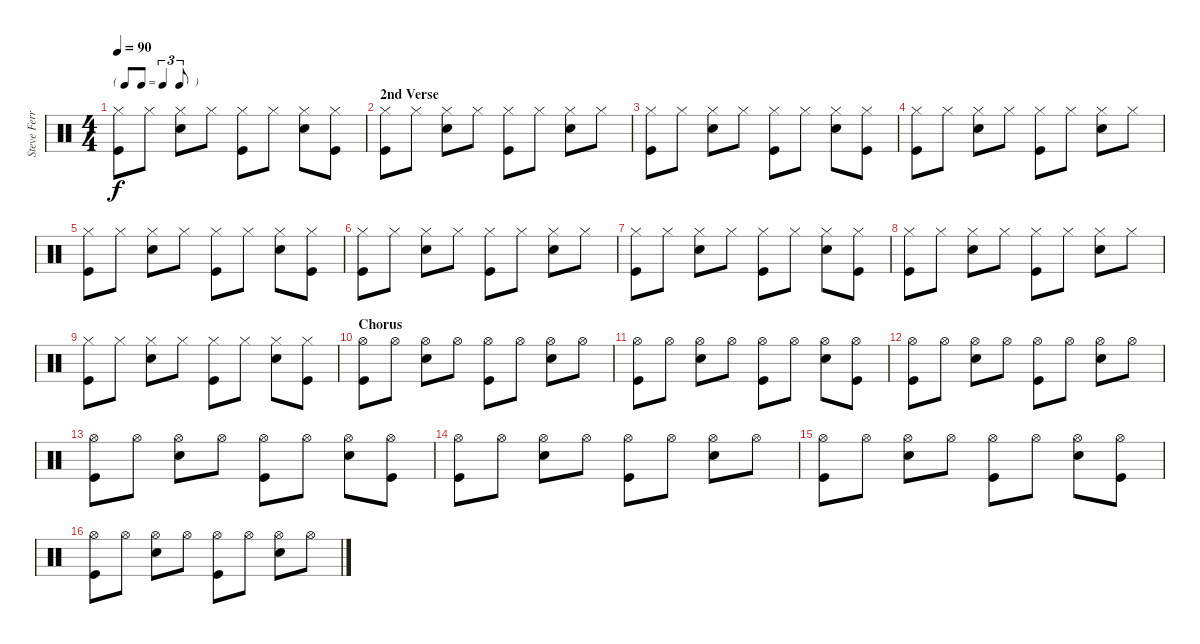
\track ("Steve Ferrone" "Steve Ferr") {instrument percussion}
\staff {score}
\articulation defaults
\ts (4 4)
\tf triplet8th
\tempo 90
\clef neutral
\ks c
("Hi-Hat (closed)" "Kick (hit)").8{dy f} "Hi-Hat (closed)".8 ("Hi-Hat (closed)" "Snare (hit) 2").8 "Hi-Hat (closed)".8 ("Hi-Hat (closed)" "Kick (hit)").8 "Hi-Hat (closed)".8 ("Hi-Hat (closed)" "Snare (hit) 2").8 ("Hi-Hat (closed)" "Kick (hit)").8 |
\section ("" "2nd Verse")
("Hi-Hat (closed)" "Kick (hit)").8 "Hi-Hat (closed)".8 ("Hi-Hat (closed)" "Snare (hit) 2").8 "Hi-Hat (closed)".8 ("Hi-Hat (closed)" "Kick (hit)").8 "Hi-Hat (closed)".8 ("Hi-Hat (closed)" "Snare (hit) 2").8 "Hi-Hat (closed)".8 |
("Hi-Hat (closed)" "Kick (hit)").8 "Hi-Hat (closed)".8 ("Hi-Hat (closed)" "Snare (hit) 2").8 "Hi-Hat (closed)".8 ("Hi-Hat (closed)" "Kick (hit)").8 "Hi-Hat (closed)".8 ("Hi-Hat (closed)" "Snare (hit) 2").8 ("Hi-Hat (closed)" "Kick (hit)").8 |
("Hi-Hat (closed)" "Kick (hit)").8 "Hi-Hat (closed)".8 ("Hi-Hat (closed)" "Snare (hit) 2").8 "Hi-Hat (closed)".8 ("Hi-Hat (closed)" "Kick (hit)").8 "Hi-Hat (closed)".8 ("Hi-Hat (closed)" "Snare (hit) 2").8 "Hi-Hat (closed)".8 |
("Hi-Hat (closed)" "Kick (hit)").8 "Hi-Hat (closed)".8 ("Hi-Hat (closed)" "Snare (hit) 2").8 "Hi-Hat (closed)".8 ("Hi-Hat (closed)" "Kick (hit)").8 "Hi-Hat (closed)".8 ("Hi-Hat (closed)" "Snare (hit) 2").8 ("Hi-Hat (closed)" "Kick (hit)").8 |
("Hi-Hat (closed)" "Kick (hit)").8 "Hi-Hat (closed)".8 ("Hi-Hat (closed)" "Snare (hit) 2").8 "Hi-Hat (closed)".8 ("Hi-Hat (closed)" "Kick (hit)").8 "Hi-Hat (closed)".8 ("Hi-Hat (closed)" "Snare (hit) 2").8 "Hi-Hat (closed)".8 |
("Hi-Hat (closed)" "Kick (hit)").8 "Hi-Hat (closed)".8 ("Hi-Hat (closed)" "Snare (hit) 2").8 "Hi-Hat (closed)".8 ("Hi-Hat (closed)" "Kick (hit)").8 "Hi-Hat (closed)".8 ("Hi-Hat (closed)" "Snare (hit) 2").8 ("Hi-Hat (closed)" "Kick (hit)").8 |
("Hi-Hat (closed)" "Kick (hit)").8 "Hi-Hat (closed)".8 ("Hi-Hat (closed)" "Snare (hit) 2").8 "Hi-Hat (closed)".8 ("Hi-Hat (closed)" "Kick (hit)").8 "Hi-Hat (closed)".8 ("Hi-Hat (closed)" "Snare (hit) 2").8 "Hi-Hat (closed)".8 |
("Hi-Hat (closed)" "Kick (hit)").8 "Hi-Hat (closed)".8 ("Hi-Hat (closed)" "Snare (hit) 2").8 "Hi-Hat (closed)".8 ("Hi-Hat (closed)" "Kick (hit)").8 "Hi-Hat (closed)".8 ("Hi-Hat (closed)" "Snare (hit) 2").8 ("Hi-Hat (closed)" "Kick (hit)").8 |
\section ("" "Chorus")
("Hi-Hat (open)" "Kick (hit)").8 "Hi-Hat (open)".8 ("Hi-Hat (open)" "Snare (hit) 2").8 "Hi-Hat (open)".8 ("Hi-Hat (open)" "Kick (hit)").8 "Hi-Hat (open)".8 ("Hi-Hat (open)" "Snare (hit) 2").8 "Hi-Hat (open)".8 |
("Hi-Hat (open)" "Kick (hit)").8 "Hi-Hat (open)".8 ("Hi-Hat (open)" "Snare (hit) 2").8 "Hi-Hat (open)".8 ("Hi-Hat (open)" "Kick (hit)").8 "Hi-Hat (open)".8 ("Hi-Hat (open)" "Snare (hit) 2").8 ("Hi-Hat (open)" "Kick (hit)").8 |
("Hi-Hat (open)" "Kick (hit)").8 "Hi-Hat (open)".8 ("Hi-Hat (open)" "Snare (hit) 2").8 "Hi-Hat (open)".8 ("Hi-Hat (open)" "Kick (hit)").8 "Hi-Hat (open)".8 ("Hi-Hat (open)" "Snare (hit) 2").8 "Hi-Hat (open)".8 |
("Hi-Hat (open)" "Kick (hit)").8 "Hi-Hat (open)".8 ("Hi-Hat (open)" "Snare (hit) 2").8 "Hi-Hat (open)".8 ("Hi-Hat (open)" "Kick (hit)").8 "Hi-Hat (open)".8 ("Hi-Hat (open)" "Snare (hit) 2").8 ("Hi-Hat (open)" "Kick (hit)").8 |
("Hi-Hat (open)" "Kick (hit)").8 "Hi-Hat (open)".8 ("Hi-Hat (open)" "Snare (hit) 2").8 "Hi-Hat (open)".8 ("Hi-Hat (open)" "Kick (hit)").8 "Hi-Hat (open)".8 ("Hi-Hat (open)" "Snare (hit) 2").8 "Hi-Hat (open)".8 |
("Hi-Hat (open)" "Kick (hit)").8 "Hi-Hat (open)".8 ("Hi-Hat (open)" "Snare (hit) 2").8 "Hi-Hat (open)".8 ("Hi-Hat (open)" "Kick (hit)").8 "Hi-Hat (open)".8 ("Hi-Hat (open)" "Snare (hit) 2").8 ("Hi-Hat (open)" "Kick (hit)").8 |
("Hi-Hat (open)" "Kick (hit)").8 "Hi-Hat (open)".8 ("Hi-Hat (open)" "Snare (hit) 2").8 "Hi-Hat (open)".8 ("Hi-Hat (open)" "Kick (hit)").8 "Hi-Hat (open)".8 ("Hi-Hat (open)" "Snare (hit) 2").8 "Hi-Hat (open)".8
